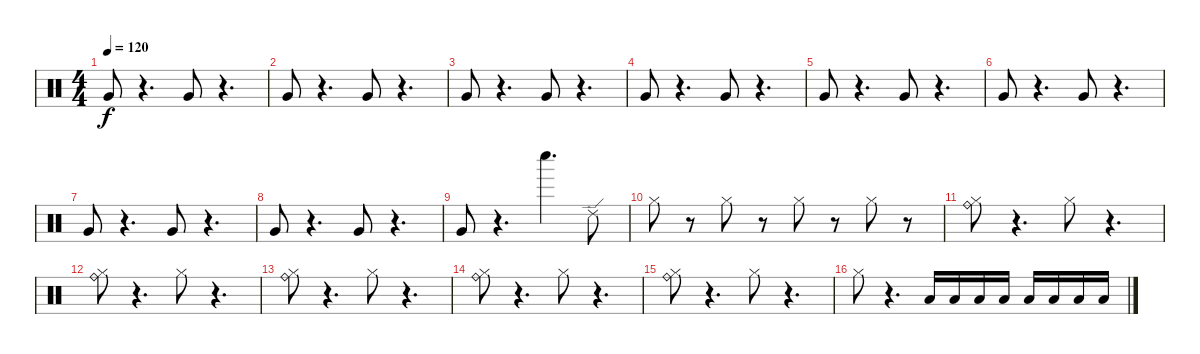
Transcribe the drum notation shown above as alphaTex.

\track "" {instrument percussion}
\staff {score}
\articulation defaults
\ts (4 4)
\tempo 120
\clef neutral
\ks c "Very Low Tom (hit)".8{dy f}
r.4{d} "Very Low Tom (hit)".8 r.4{d} |
"Very Low Tom (hit)".8 r.4{d} "Very Low Tom (hit)".8 r.4{d} |
"Very Low Tom (hit)".8 r.4{d} "Very Low Tom (hit)".8 r.4{d} |
"Very Low Tom (hit)".8 r.4{d} "Very Low Tom (hit)".8 r.4{d} |
"Very Low Tom (hit)".8 r.4{d} "Very Low Tom (hit)".8 r.4{d} |
"Very Low Tom (hit)".8 r.4{d} "Very Low Tom (hit)".8 r.4{d} |
"Very Low Tom (hit)".8 r.4{d} "Very Low Tom (hit)".8 r.4{d} |
"Very Low Tom (hit)".8 r.4{d} "Very Low Tom (hit)".8 r.4{d} |
"Very Low Tom (hit)".8 r.4{d} "Whistle low (hit)".4{d} "Ride (edge) 2".8 |
"Hi-Hat (closed)".8 r.8 "Hi-Hat (closed)".8 r.8 "Hi-Hat (closed)".8 r.8 "Hi-Hat (closed)".8 r.8 |
("Ride (bell)" "Hi-Hat (closed)").8 r.4{d} "Hi-Hat (closed)".8 r.4{d} |
("Ride (bell)" "Hi-Hat (closed)").8 r.4{d} "Hi-Hat (closed)".8 r.4{d} |
("Ride (bell)" "Hi-Hat (closed)").8 r.4{d} "Hi-Hat (closed)".8 r.4{d} |
("Ride (bell)" "Hi-Hat (closed)").8 r.4{d} "Hi-Hat (closed)".8 r.4{d} |
("Ride (bell)" "Hi-Hat (closed)").8 r.4{d} "Hi-Hat (closed)".8 r.4{d} |
"Hi-Hat (closed)".8 r.4{d} "Low Tom (hit)".16 "Low Tom (hit)".16 "Low Tom (hit)".16 "Low Tom (hit)".16 "Low Floor Tom (hit)".16 "Low Floor Tom (hit)".16 "Low Floor Tom (hit)".16 "Low Floor Tom (hit)".16
